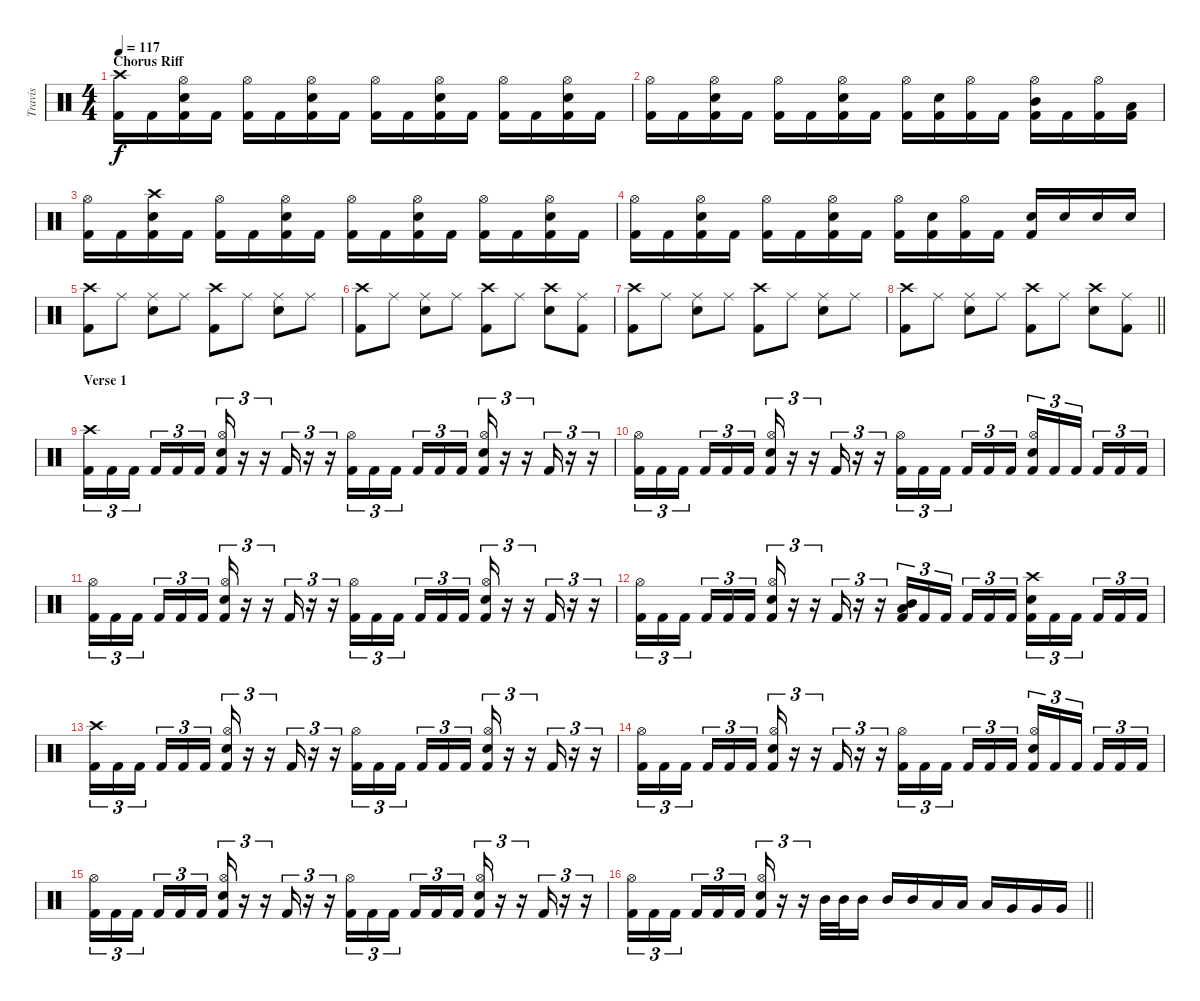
\track ("Travis" "Travis") {instrument percussion}
\staff {score}
\articulation defaults
\ts (4 4)
\section ("" "Chorus Riff")
\tempo 117
\clef neutral
\ks c
("Crash high (hit)" "Kick (hit) 2").16{dy f} "Kick (hit) 2".16 ("Hi-Hat (open)" "Electric Snare (hit)" "Kick (hit) 2").16 "Kick (hit) 2".16 ("Hi-Hat (open)" "Kick (hit) 2").16 "Kick (hit) 2".16 ("Hi-Hat (open)" "Electric Snare (hit)" "Kick (hit) 2").16 "Kick (hit) 2".16 ("Hi-Hat (open)" "Kick (hit) 2").16 "Kick (hit) 2".16 ("Hi-Hat (open)" "Electric Snare (hit)" "Kick (hit) 2").16 "Kick (hit) 2".16 ("Hi-Hat (open)" "Kick (hit) 2").16 "Kick (hit) 2".16 ("Hi-Hat (open)" "Electric Snare (hit)" "Kick (hit) 2").16 "Kick (hit) 2".16 |
("Hi-Hat (open)" "Kick (hit) 2").16 "Kick (hit) 2".16 ("Hi-Hat (open)" "Electric Snare (hit)" "Kick (hit) 2").16 "Kick (hit) 2".16 ("Hi-Hat (open)" "Kick (hit) 2").16 "Kick (hit) 2".16 ("Hi-Hat (open)" "Electric Snare (hit)" "Kick (hit) 2").16 "Kick (hit) 2".16 ("Hi-Hat (open)" "Kick (hit) 2").16 ("Electric Snare (hit)" "Kick (hit) 2").16 ("Hi-Hat (open)" "Kick (hit) 2").16 "Kick (hit) 2".16 ("Hi-Hat (open)" "Mid Tom (hit)" "Kick (hit) 2").16 "Kick (hit) 2".16 ("Hi-Hat (open)" "Kick (hit) 2").16 ("Low Tom (hit)" "Kick (hit) 2").16 |
("Hi-Hat (open)" "Kick (hit) 2").16 "Kick (hit) 2".16 ("Crash high (hit)" "Electric Snare (hit)" "Kick (hit) 2").16 "Kick (hit) 2".16 ("Hi-Hat (open)" "Kick (hit) 2").16 "Kick (hit) 2".16 ("Hi-Hat (open)" "Electric Snare (hit)" "Kick (hit) 2").16 "Kick (hit) 2".16 ("Hi-Hat (open)" "Kick (hit) 2").16 "Kick (hit) 2".16 ("Hi-Hat (open)" "Electric Snare (hit)" "Kick (hit) 2").16 "Kick (hit) 2".16 ("Hi-Hat (open)" "Kick (hit) 2").16 "Kick (hit) 2".16 ("Hi-Hat (open)" "Electric Snare (hit)" "Kick (hit) 2").16 "Kick (hit) 2".16 |
("Hi-Hat (open)" "Kick (hit) 2").16 "Kick (hit) 2".16 ("Hi-Hat (open)" "Electric Snare (hit)" "Kick (hit) 2").16 "Kick (hit) 2".16 ("Hi-Hat (open)" "Kick (hit) 2").16 "Kick (hit) 2".16 ("Hi-Hat (open)" "Electric Snare (hit)" "Kick (hit) 2").16 "Kick (hit) 2".16 ("Hi-Hat (open)" "Kick (hit) 2").16 ("Electric Snare (hit)" "Kick (hit) 2").16 ("Hi-Hat (open)" "Kick (hit) 2").16 "Kick (hit) 2".16 ("Electric Snare (hit)" "Kick (hit) 2").16 "Electric Snare (hit)".16 "Electric Snare (hit)".16 "Electric Snare (hit)".16 |
("Crash high (hit)" "Kick (hit) 2").8 "Ride (middle)".8 ("Ride (middle)" "Electric Snare (hit)").8 "Ride (middle)".8 ("Crash high (hit)" "Kick (hit) 2").8 "Ride (middle)".8 ("Ride (middle)" "Electric Snare (hit)").8 "Ride (middle)".8 |
("Crash high (hit)" "Kick (hit) 2").8 "Ride (middle)".8 ("Ride (middle)" "Electric Snare (hit)").8 "Ride (middle)".8 ("Crash high (hit)" "Kick (hit) 2").8 "Ride (middle)".8 ("Crash high (hit)" "Electric Snare (hit)").8 ("Ride (middle)" "Kick (hit) 2").8 |
("Crash high (hit)" "Kick (hit) 2").8 "Ride (middle)".8 ("Ride (middle)" "Electric Snare (hit)").8 "Ride (middle)".8 ("Crash high (hit)" "Kick (hit) 2").8 "Ride (middle)".8 ("Ride (middle)" "Electric Snare (hit)").8 "Ride (middle)".8 |
\barLineRight lightlight
("Crash high (hit)" "Kick (hit) 2").8 "Ride (middle)".8 ("Ride (middle)" "Electric Snare (hit)").8 "Ride (middle)".8 ("Crash high (hit)" "Kick (hit) 2").8 "Ride (middle)".8 ("Crash high (hit)" "Electric Snare (hit)").8 ("Ride (middle)" "Kick (hit) 2").8 |
\section ("" "Verse 1")
("Crash high (hit)" "Kick (hit) 2").16{tu (3 2)} "Kick (hit) 2".16{tu (3 2)} "Kick (hit) 2".16{tu (3 2) beam splitsecondary} "Kick (hit) 2".16{tu (3 2)} "Kick (hit) 2".16{tu (3 2)} "Kick (hit) 2".16{tu (3 2)} ("Hi-Hat (open)" "Electric Snare (hit)" "Kick (hit) 2").16{tu (3 2)} r.16{tu (3 2)} r.16{tu (3 2)} "Kick (hit) 2".16{tu (3 2)} r.16{tu (3 2)} r.16{tu (3 2)} ("Hi-Hat (open)" "Kick (hit) 2").16{tu (3 2)} "Kick (hit) 2".16{tu (3 2)} "Kick (hit) 2".16{tu (3 2) beam splitsecondary} "Kick (hit) 2".16{tu (3 2)} "Kick (hit) 2".16{tu (3 2)} "Kick (hit) 2".16{tu (3 2)} ("Hi-Hat (open)" "Electric Snare (hit)" "Kick (hit) 2").16{tu (3 2)} r.16{tu (3 2)} r.16{tu (3 2)} "Kick (hit) 2".16{tu (3 2)} r.16{tu (3 2)} r.16{tu (3 2)} |
("Hi-Hat (open)" "Kick (hit) 2").16{tu (3 2)} "Kick (hit) 2".16{tu (3 2)} "Kick (hit) 2".16{tu (3 2) beam splitsecondary} "Kick (hit) 2".16{tu (3 2)} "Kick (hit) 2".16{tu (3 2)} "Kick (hit) 2".16{tu (3 2)} ("Hi-Hat (open)" "Electric Snare (hit)" "Kick (hit) 2").16{tu (3 2)} r.16{tu (3 2)} r.16{tu (3 2)} "Kick (hit) 2".16{tu (3 2)} r.16{tu (3 2)} r.16{tu (3 2)} ("Hi-Hat (open)" "Kick (hit) 2").16{tu (3 2)} "Kick (hit) 2".16{tu (3 2)} "Kick (hit) 2".16{tu (3 2) beam splitsecondary} "Kick (hit) 2".16{tu (3 2)} "Kick (hit) 2".16{tu (3 2)} "Kick (hit) 2".16{tu (3 2)} ("Hi-Hat (open)" "Electric Snare (hit)" "Kick (hit) 2").16{tu (3 2)} "Kick (hit) 2".16{tu (3 2)} "Kick (hit) 2".16{tu (3 2) beam splitsecondary} "Kick (hit) 2".16{tu (3 2)} "Kick (hit) 2".16{tu (3 2)} "Kick (hit) 2".16{tu (3 2)} |
("Hi-Hat (open)" "Kick (hit) 2").16{tu (3 2)} "Kick (hit) 2".16{tu (3 2)} "Kick (hit) 2".16{tu (3 2) beam splitsecondary} "Kick (hit) 2".16{tu (3 2)} "Kick (hit) 2".16{tu (3 2)} "Kick (hit) 2".16{tu (3 2)} ("Hi-Hat (open)" "Electric Snare (hit)" "Kick (hit) 2").16{tu (3 2)} r.16{tu (3 2)} r.16{tu (3 2)} "Kick (hit) 2".16{tu (3 2)} r.16{tu (3 2)} r.16{tu (3 2)} ("Hi-Hat (open)" "Kick (hit) 2").16{tu (3 2)} "Kick (hit) 2".16{tu (3 2)} "Kick (hit) 2".16{tu (3 2) beam splitsecondary} "Kick (hit) 2".16{tu (3 2)} "Kick (hit) 2".16{tu (3 2)} "Kick (hit) 2".16{tu (3 2)} ("Hi-Hat (open)" "Electric Snare (hit)" "Kick (hit) 2").16{tu (3 2)} r.16{tu (3 2)} r.16{tu (3 2)} "Kick (hit) 2".16{tu (3 2)} r.16{tu (3 2)} r.16{tu (3 2)} |
("Hi-Hat (open)" "Kick (hit) 2").16{tu (3 2)} "Kick (hit) 2".16{tu (3 2)} "Kick (hit) 2".16{tu (3 2) beam splitsecondary} "Kick (hit) 2".16{tu (3 2)} "Kick (hit) 2".16{tu (3 2)} "Kick (hit) 2".16{tu (3 2)} ("Hi-Hat (open)" "Electric Snare (hit)" "Kick (hit) 2").16{tu (3 2)} r.16{tu (3 2)} r.16{tu (3 2)} "Kick (hit) 2".16{tu (3 2)} r.16{tu (3 2)} r.16{tu (3 2)} ("Mid Tom (hit)" "Low Floor Tom (hit)" "Kick (hit) 2").16{tu (3 2)} "Kick (hit) 2".16{tu (3 2)} "Kick (hit) 2".16{tu (3 2) beam splitsecondary} "Kick (hit) 2".16{tu (3 2)} "Kick (hit) 2".16{tu (3 2)} "Kick (hit) 2".16{tu (3 2)} ("Crash high (hit)" "Electric Snare (hit)" "Kick (hit) 2").16{tu (3 2)} "Kick (hit) 2".16{tu (3 2)} "Kick (hit) 2".16{tu (3 2) beam splitsecondary} "Kick (hit) 2".16{tu (3 2)} "Kick (hit) 2".16{tu (3 2)} "Kick (hit) 2".16{tu (3 2)} |
("Crash high (hit)" "Kick (hit) 2").16{tu (3 2)} "Kick (hit) 2".16{tu (3 2)} "Kick (hit) 2".16{tu (3 2) beam splitsecondary} "Kick (hit) 2".16{tu (3 2)} "Kick (hit) 2".16{tu (3 2)} "Kick (hit) 2".16{tu (3 2)} ("Hi-Hat (open)" "Electric Snare (hit)" "Kick (hit) 2").16{tu (3 2)} r.16{tu (3 2)} r.16{tu (3 2)} "Kick (hit) 2".16{tu (3 2)} r.16{tu (3 2)} r.16{tu (3 2)} ("Hi-Hat (open)" "Kick (hit) 2").16{tu (3 2)} "Kick (hit) 2".16{tu (3 2)} "Kick (hit) 2".16{tu (3 2) beam splitsecondary} "Kick (hit) 2".16{tu (3 2)} "Kick (hit) 2".16{tu (3 2)} "Kick (hit) 2".16{tu (3 2)} ("Hi-Hat (open)" "Electric Snare (hit)" "Kick (hit) 2").16{tu (3 2)} r.16{tu (3 2)} r.16{tu (3 2)} "Kick (hit) 2".16{tu (3 2)} r.16{tu (3 2)} r.16{tu (3 2)} |
("Hi-Hat (open)" "Kick (hit) 2").16{tu (3 2)} "Kick (hit) 2".16{tu (3 2)} "Kick (hit) 2".16{tu (3 2) beam splitsecondary} "Kick (hit) 2".16{tu (3 2)} "Kick (hit) 2".16{tu (3 2)} "Kick (hit) 2".16{tu (3 2)} ("Hi-Hat (open)" "Electric Snare (hit)" "Kick (hit) 2").16{tu (3 2)} r.16{tu (3 2)} r.16{tu (3 2)} "Kick (hit) 2".16{tu (3 2)} r.16{tu (3 2)} r.16{tu (3 2)} ("Hi-Hat (open)" "Kick (hit) 2").16{tu (3 2)} "Kick (hit) 2".16{tu (3 2)} "Kick (hit) 2".16{tu (3 2) beam splitsecondary} "Kick (hit) 2".16{tu (3 2)} "Kick (hit) 2".16{tu (3 2)} "Kick (hit) 2".16{tu (3 2)} ("Hi-Hat (open)" "Electric Snare (hit)" "Kick (hit) 2").16{tu (3 2)} "Kick (hit) 2".16{tu (3 2)} "Kick (hit) 2".16{tu (3 2) beam splitsecondary} "Kick (hit) 2".16{tu (3 2)} "Kick (hit) 2".16{tu (3 2)} "Kick (hit) 2".16{tu (3 2)} |
("Hi-Hat (open)" "Kick (hit) 2").16{tu (3 2)} "Kick (hit) 2".16{tu (3 2)} "Kick (hit) 2".16{tu (3 2) beam splitsecondary} "Kick (hit) 2".16{tu (3 2)} "Kick (hit) 2".16{tu (3 2)} "Kick (hit) 2".16{tu (3 2)} ("Hi-Hat (open)" "Electric Snare (hit)" "Kick (hit) 2").16{tu (3 2)} r.16{tu (3 2)} r.16{tu (3 2)} "Kick (hit) 2".16{tu (3 2)} r.16{tu (3 2)} r.16{tu (3 2)} ("Hi-Hat (open)" "Kick (hit) 2").16{tu (3 2)} "Kick (hit) 2".16{tu (3 2)} "Kick (hit) 2".16{tu (3 2) beam splitsecondary} "Kick (hit) 2".16{tu (3 2)} "Kick (hit) 2".16{tu (3 2)} "Kick (hit) 2".16{tu (3 2)} ("Hi-Hat (open)" "Electric Snare (hit)" "Kick (hit) 2").16{tu (3 2)} r.16{tu (3 2)} r.16{tu (3 2)} "Kick (hit) 2".16{tu (3 2)} r.16{tu (3 2)} r.16{tu (3 2)} |
\barLineRight lightlight
("Hi-Hat (open)" "Kick (hit) 2").16{tu (3 2)} "Kick (hit) 2".16{tu (3 2)} "Kick (hit) 2".16{tu (3 2) beam splitsecondary} "Kick (hit) 2".16{tu (3 2)} "Kick (hit) 2".16{tu (3 2)} "Kick (hit) 2".16{tu (3 2)} ("Hi-Hat (open)" "Electric Snare (hit)" "Kick (hit) 2").16{tu (3 2)} r.16{tu (3 2)} r.16{tu (3 2)} "Mid Tom (hit)".32 "Mid Tom (hit)".32 "Mid Tom (hit)".16 "Mid Tom (hit)".16 "Mid Tom (hit)".16 "Low Tom (hit)".16 "Low Tom (hit)".16 "Low Tom (hit)".16 "Very Low Tom (hit)".16 "Very Low Tom (hit)".16 "Very Low Tom (hit)".16
